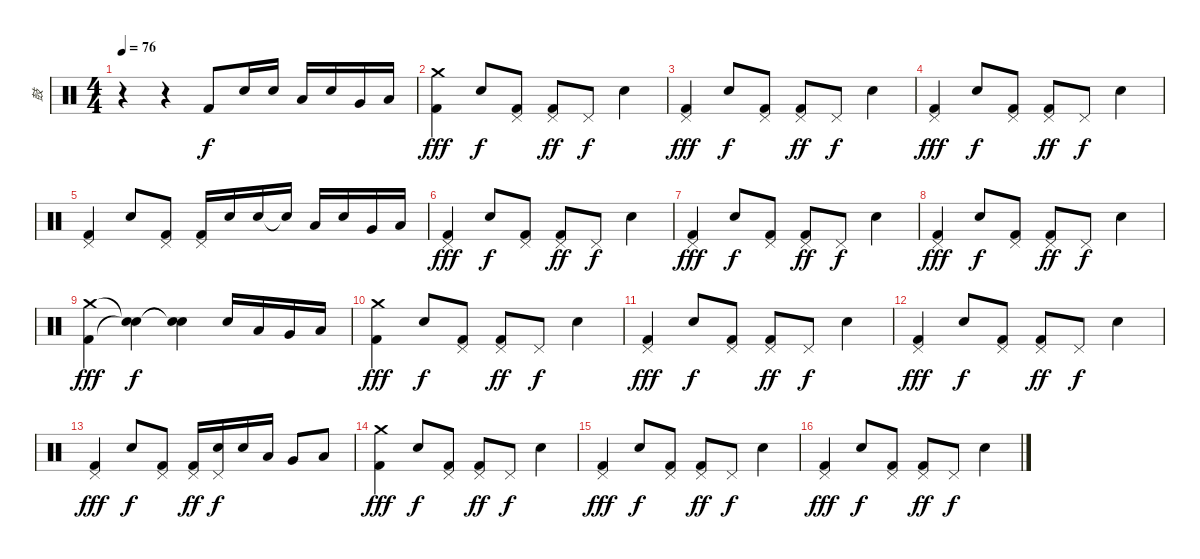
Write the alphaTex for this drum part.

\track ("鼓" "鼓") {instrument percussion}
\staff {score}
\articulation defaults
\ts (4 4)
\tempo 76
\clef neutral
\ks c
r.4{dy f} r.4 "Kick (hit) 2".8 "Electric Snare (hit)".16 "Electric Snare (hit)".16 "Low Tom (hit)".16 "Electric Snare (hit)".16 "Very Low Tom (hit)".16 "Low Floor Tom (hit)".16 |
("Kick (hit) 2" "Crash medium (hit)").4{dy fff} "Electric Snare (hit)".8{dy f} ("Kick (hit) 2" "Pedal Hi-Hat (hit)").8 ("Kick (hit) 2" "Pedal Hi-Hat (hit)").8{dy ff} "Pedal Hi-Hat (hit)".8{dy f} "Electric Snare (hit)".4 |
("Kick (hit) 2" "Pedal Hi-Hat (hit)").4{dy fff} "Electric Snare (hit)".8{dy f} ("Kick (hit) 2" "Pedal Hi-Hat (hit)").8 ("Kick (hit) 2" "Pedal Hi-Hat (hit)").8{dy ff} "Pedal Hi-Hat (hit)".8{dy f} "Electric Snare (hit)".4 |
("Kick (hit) 2" "Pedal Hi-Hat (hit)").4{dy fff} "Electric Snare (hit)".8{dy f} ("Kick (hit) 2" "Pedal Hi-Hat (hit)").8 ("Kick (hit) 2" "Pedal Hi-Hat (hit)").8{dy ff} "Pedal Hi-Hat (hit)".8{dy f} "Electric Snare (hit)".4 |
("Kick (hit) 2" "Pedal Hi-Hat (hit)").4 "Electric Snare (hit)".8 ("Kick (hit) 2" "Pedal Hi-Hat (hit)").8 ("Kick (hit) 2" "Pedal Hi-Hat (hit)").16 "Electric Snare (hit)".16 "Electric Snare (hit)".16 "Snare (hit)"{t}.16 "Low Tom (hit)".16 "Electric Snare (hit)".16 "Very Low Tom (hit)".16 "Low Floor Tom (hit)".16 |
("Kick (hit) 2" "Pedal Hi-Hat (hit)").4{dy fff} "Electric Snare (hit)".8{dy f} ("Kick (hit) 2" "Pedal Hi-Hat (hit)").8 ("Kick (hit) 2" "Pedal Hi-Hat (hit)").8{dy ff} "Pedal Hi-Hat (hit)".8{dy f} "Electric Snare (hit)".4 |
("Kick (hit) 2" "Pedal Hi-Hat (hit)").4{dy fff} "Electric Snare (hit)".8{dy f} ("Kick (hit) 2" "Pedal Hi-Hat (hit)").8 ("Kick (hit) 2" "Pedal Hi-Hat (hit)").8{dy ff} "Pedal Hi-Hat (hit)".8{dy f} "Electric Snare (hit)".4 |
("Kick (hit) 2" "Pedal Hi-Hat (hit)").4{dy fff} "Electric Snare (hit)".8{dy f} ("Kick (hit) 2" "Pedal Hi-Hat (hit)").8 ("Kick (hit) 2" "Pedal Hi-Hat (hit)").8{dy ff} "Pedal Hi-Hat (hit)".8{dy f} "Electric Snare (hit)".4 |
("Kick (hit) 2" "Crash medium (hit)").4{dy fff} ("Electric Snare (hit)"{t} "Snare (hit)"{t}).4{dy f} ("Snare (hit)"{t} "Snare (hit)"{t}).4 "Electric Snare (hit)".16 "Low Tom (hit)".16 "Very Low Tom (hit)".16 "Low Floor Tom (hit)".16 |
("Kick (hit) 2" "Crash medium (hit)").4{dy fff} "Electric Snare (hit)".8{dy f} ("Kick (hit) 2" "Pedal Hi-Hat (hit)").8 ("Kick (hit) 2" "Pedal Hi-Hat (hit)").8{dy ff} "Pedal Hi-Hat (hit)".8{dy f} "Electric Snare (hit)".4 |
("Kick (hit) 2" "Pedal Hi-Hat (hit)").4{dy fff} "Electric Snare (hit)".8{dy f} ("Kick (hit) 2" "Pedal Hi-Hat (hit)").8 ("Kick (hit) 2" "Pedal Hi-Hat (hit)").8{dy ff} "Pedal Hi-Hat (hit)".8{dy f} "Electric Snare (hit)".4 |
("Kick (hit) 2" "Pedal Hi-Hat (hit)").4{dy fff} "Electric Snare (hit)".8{dy f} ("Kick (hit) 2" "Pedal Hi-Hat (hit)").8 ("Kick (hit) 2" "Pedal Hi-Hat (hit)").8{dy ff} "Pedal Hi-Hat (hit)".8{dy f} "Electric Snare (hit)".4 |
("Kick (hit) 2" "Pedal Hi-Hat (hit)").4{dy fff} "Electric Snare (hit)".8{dy f} ("Kick (hit) 2" "Pedal Hi-Hat (hit)").8 ("Kick (hit) 2" "Pedal Hi-Hat (hit)").16{dy ff} ("Electric Snare (hit)" "Pedal Hi-Hat (hit)").16{dy f} "Electric Snare (hit)".16 "Low Tom (hit)".16 "Very Low Tom (hit)".8 "Low Floor Tom (hit)".8 |
("Kick (hit) 2" "Crash medium (hit)").4{dy fff} "Electric Snare (hit)".8{dy f} ("Kick (hit) 2" "Pedal Hi-Hat (hit)").8 ("Kick (hit) 2" "Pedal Hi-Hat (hit)").8{dy ff} "Pedal Hi-Hat (hit)".8{dy f} "Electric Snare (hit)".4 |
("Kick (hit) 2" "Pedal Hi-Hat (hit)").4{dy fff} "Electric Snare (hit)".8{dy f} ("Kick (hit) 2" "Pedal Hi-Hat (hit)").8 ("Kick (hit) 2" "Pedal Hi-Hat (hit)").8{dy ff} "Pedal Hi-Hat (hit)".8{dy f} "Electric Snare (hit)".4 |
("Kick (hit) 2" "Pedal Hi-Hat (hit)").4{dy fff} "Electric Snare (hit)".8{dy f} ("Kick (hit) 2" "Pedal Hi-Hat (hit)").8 ("Kick (hit) 2" "Pedal Hi-Hat (hit)").8{dy ff} "Pedal Hi-Hat (hit)".8{dy f} "Electric Snare (hit)".4
